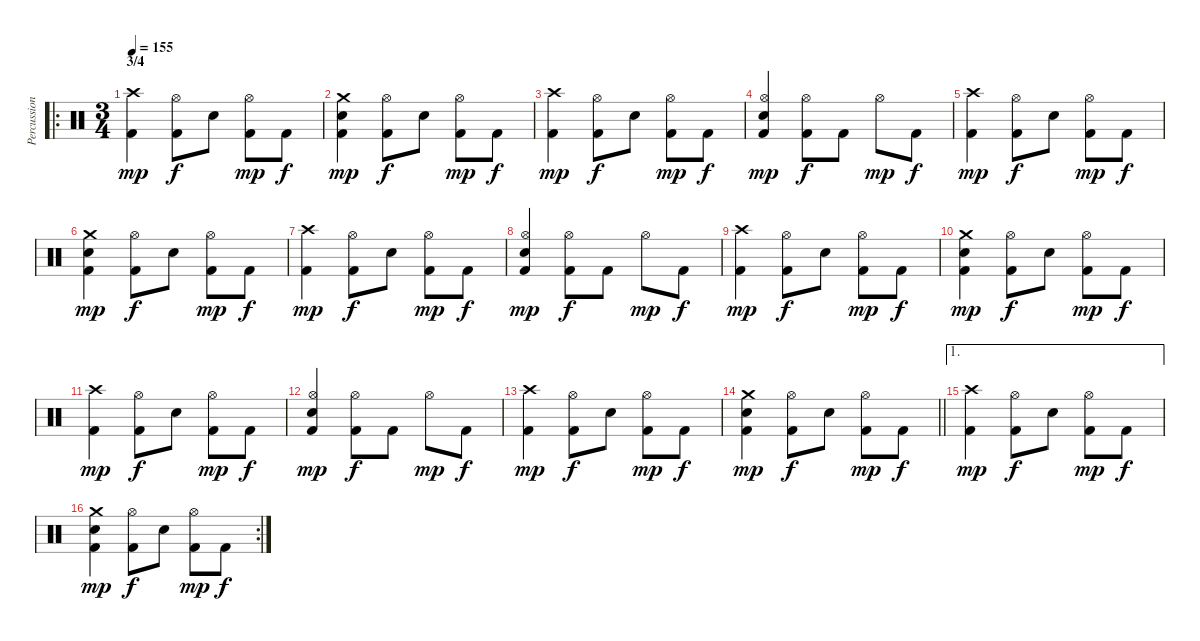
\track ("Percussion" "Percussion") {instrument percussion}
\staff {score}
\articulation defaults
\ro
\ts (3 4)
\section ("" "3/4")
\tempo 155
\clef neutral
\ks c
("Crash high (hit)" "Kick (hit) 2").4{dy mp} ("Hi-Hat (open)" "Kick (hit) 2").8{dy f} "Snare (hit) 2".8 ("Hi-Hat (open)" "Kick (hit) 2").8{dy mp} "Kick (hit) 2".8{dy f} |
("Crash medium (hit)" "Snare (hit) 2" "Kick (hit) 2").4{dy mp} ("Hi-Hat (open)" "Kick (hit) 2").8{dy f} "Snare (hit) 2".8 ("Hi-Hat (open)" "Kick (hit) 2").8{dy mp} "Kick (hit) 2".8{dy f} |
("Crash high (hit)" "Kick (hit) 2").4{dy mp} ("Hi-Hat (open)" "Kick (hit) 2").8{dy f} "Snare (hit) 2".8 ("Hi-Hat (open)" "Kick (hit) 2").8{dy mp} "Kick (hit) 2".8{dy f} |
("Hi-Hat (open)" "Snare (hit) 2" "Kick (hit) 2").4{dy mp} ("Hi-Hat (open)" "Kick (hit) 2").8{dy f} "Kick (hit) 2".8 "Hi-Hat (open)".8{dy mp} "Kick (hit) 2".8{dy f} |
("Crash high (hit)" "Kick (hit) 2").4{dy mp} ("Hi-Hat (open)" "Kick (hit) 2").8{dy f} "Snare (hit) 2".8 ("Hi-Hat (open)" "Kick (hit) 2").8{dy mp} "Kick (hit) 2".8{dy f} |
("Crash medium (hit)" "Snare (hit) 2" "Kick (hit) 2").4{dy mp} ("Hi-Hat (open)" "Kick (hit) 2").8{dy f} "Snare (hit) 2".8 ("Hi-Hat (open)" "Kick (hit) 2").8{dy mp} "Kick (hit) 2".8{dy f} |
("Crash high (hit)" "Kick (hit) 2").4{dy mp} ("Hi-Hat (open)" "Kick (hit) 2").8{dy f} "Snare (hit) 2".8 ("Hi-Hat (open)" "Kick (hit) 2").8{dy mp} "Kick (hit) 2".8{dy f} |
("Hi-Hat (open)" "Snare (hit) 2" "Kick (hit) 2").4{dy mp} ("Hi-Hat (open)" "Kick (hit) 2").8{dy f} "Kick (hit) 2".8 "Hi-Hat (open)".8{dy mp} "Kick (hit) 2".8{dy f} |
("Crash high (hit)" "Kick (hit) 2").4{dy mp} ("Hi-Hat (open)" "Kick (hit) 2").8{dy f} "Snare (hit) 2".8 ("Hi-Hat (open)" "Kick (hit) 2").8{dy mp} "Kick (hit) 2".8{dy f} |
("Crash medium (hit)" "Snare (hit) 2" "Kick (hit) 2").4{dy mp} ("Hi-Hat (open)" "Kick (hit) 2").8{dy f} "Snare (hit) 2".8 ("Hi-Hat (open)" "Kick (hit) 2").8{dy mp} "Kick (hit) 2".8{dy f} |
("Crash high (hit)" "Kick (hit) 2").4{dy mp} ("Hi-Hat (open)" "Kick (hit) 2").8{dy f} "Snare (hit) 2".8 ("Hi-Hat (open)" "Kick (hit) 2").8{dy mp} "Kick (hit) 2".8{dy f} |
("Hi-Hat (open)" "Snare (hit) 2" "Kick (hit) 2").4{dy mp} ("Hi-Hat (open)" "Kick (hit) 2").8{dy f} "Kick (hit) 2".8 "Hi-Hat (open)".8{dy mp} "Kick (hit) 2".8{dy f} |
("Crash high (hit)" "Kick (hit) 2").4{dy mp} ("Hi-Hat (open)" "Kick (hit) 2").8{dy f} "Snare (hit) 2".8 ("Hi-Hat (open)" "Kick (hit) 2").8{dy mp} "Kick (hit) 2".8{dy f} |
\barLineRight lightlight
("Crash medium (hit)" "Snare (hit) 2" "Kick (hit) 2").4{dy mp} ("Hi-Hat (open)" "Kick (hit) 2").8{dy f} "Snare (hit) 2".8 ("Hi-Hat (open)" "Kick (hit) 2").8{dy mp} "Kick (hit) 2".8{dy f} |
\ae 1
("Crash high (hit)" "Kick (hit) 2").4{dy mp} ("Hi-Hat (open)" "Kick (hit) 2").8{dy f} "Snare (hit) 2".8 ("Hi-Hat (open)" "Kick (hit) 2").8{dy mp} "Kick (hit) 2".8{dy f} |
\rc 2
("Crash medium (hit)" "Snare (hit) 2" "Kick (hit) 2").4{dy mp} ("Hi-Hat (open)" "Kick (hit) 2").8{dy f} "Snare (hit) 2".8 ("Hi-Hat (open)" "Kick (hit) 2").8{dy mp} "Kick (hit) 2".8{dy f}
